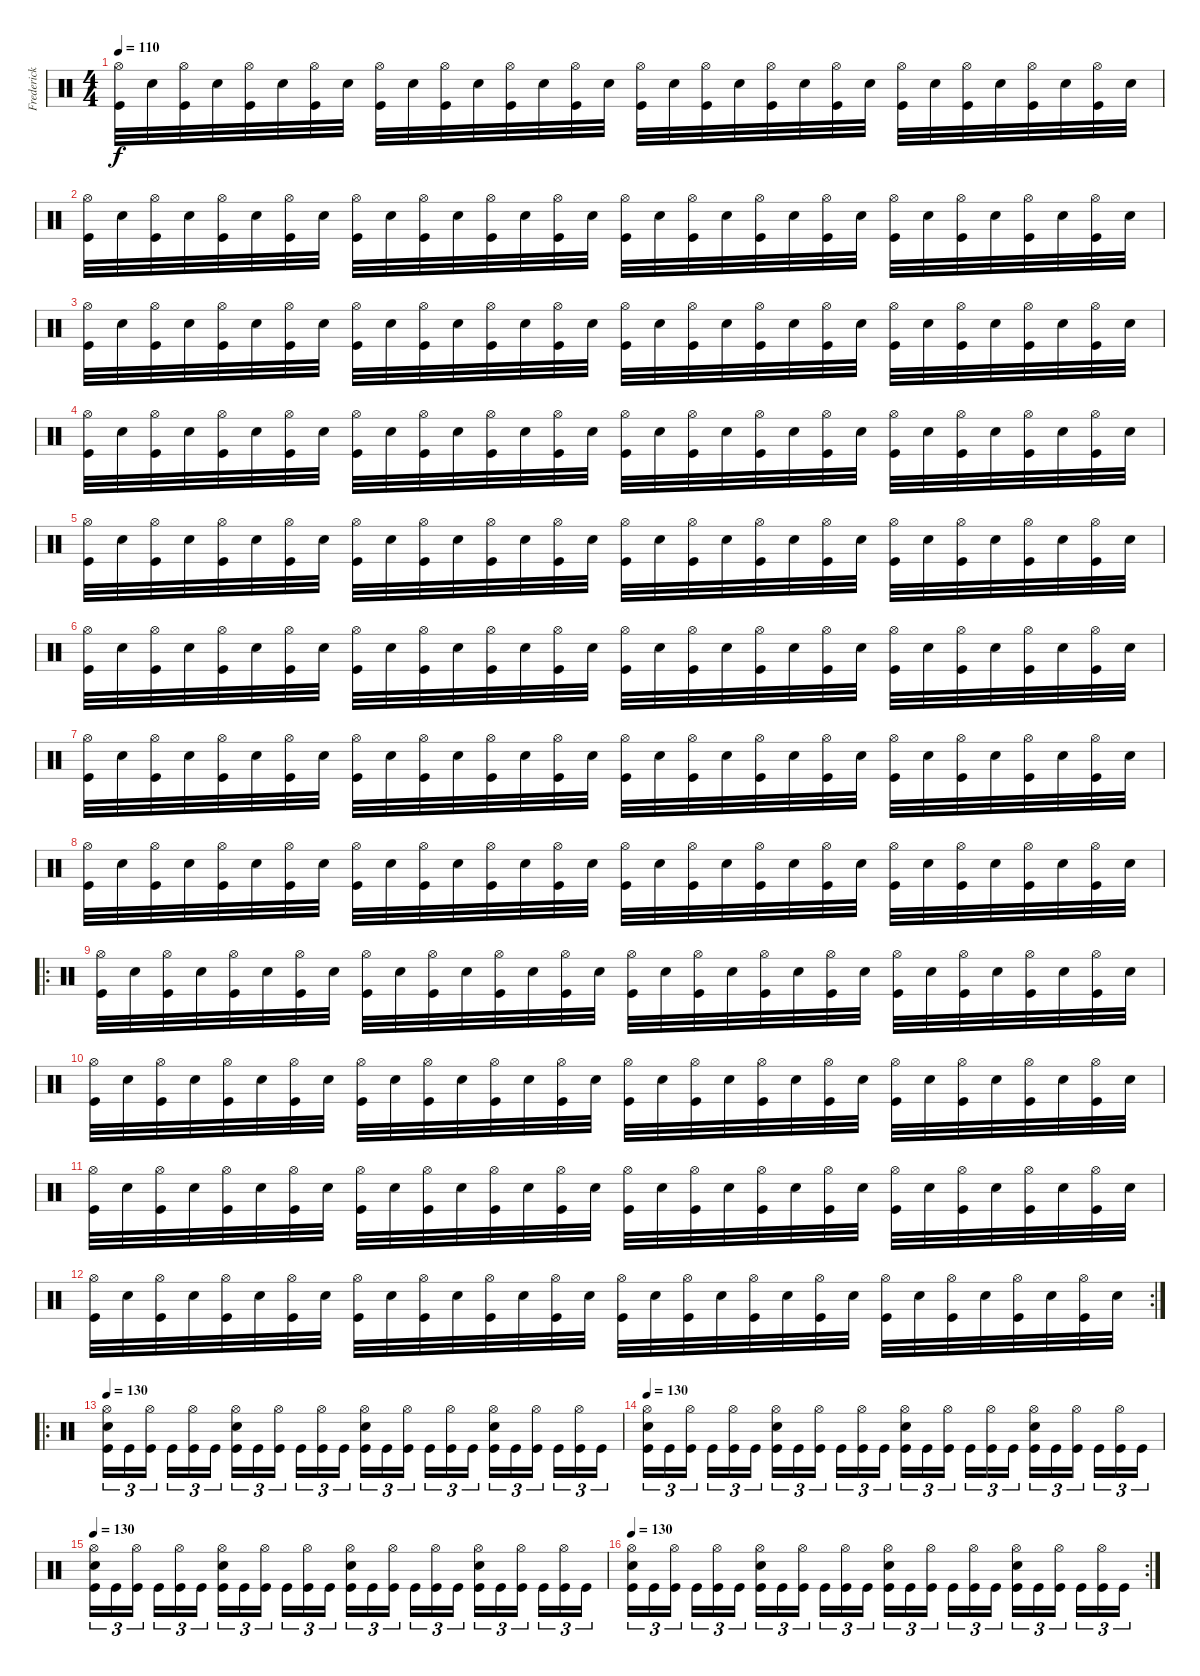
\track ("Frederick" "Frederick") {instrument percussion}
\staff {score}
\articulation defaults
\ts (4 4)
\tempo 110
\clef neutral
\ks c
("Hi-Hat (open)" "Kick (hit)").32{dy f} "Electric Snare (hit)".32 ("Hi-Hat (open)" "Kick (hit)").32 "Electric Snare (hit)".32 ("Hi-Hat (open)" "Kick (hit)").32 "Electric Snare (hit)".32 ("Hi-Hat (open)" "Kick (hit)").32 "Electric Snare (hit)".32 ("Hi-Hat (open)" "Kick (hit)").32 "Electric Snare (hit)".32 ("Hi-Hat (open)" "Kick (hit)").32 "Electric Snare (hit)".32 ("Hi-Hat (open)" "Kick (hit)").32 "Electric Snare (hit)".32 ("Hi-Hat (open)" "Kick (hit)").32 "Electric Snare (hit)".32 ("Hi-Hat (open)" "Kick (hit)").32 "Electric Snare (hit)".32 ("Hi-Hat (open)" "Kick (hit)").32 "Electric Snare (hit)".32 ("Hi-Hat (open)" "Kick (hit)").32 "Electric Snare (hit)".32 ("Hi-Hat (open)" "Kick (hit)").32 "Electric Snare (hit)".32 ("Hi-Hat (open)" "Kick (hit)").32 "Electric Snare (hit)".32 ("Hi-Hat (open)" "Kick (hit)").32 "Electric Snare (hit)".32 ("Hi-Hat (open)" "Kick (hit)").32 "Electric Snare (hit)".32 ("Hi-Hat (open)" "Kick (hit)").32 "Electric Snare (hit)".32 |
("Hi-Hat (open)" "Kick (hit)").32 "Electric Snare (hit)".32 ("Hi-Hat (open)" "Kick (hit)").32 "Electric Snare (hit)".32 ("Hi-Hat (open)" "Kick (hit)").32 "Electric Snare (hit)".32 ("Hi-Hat (open)" "Kick (hit)").32 "Electric Snare (hit)".32 ("Hi-Hat (open)" "Kick (hit)").32 "Electric Snare (hit)".32 ("Hi-Hat (open)" "Kick (hit)").32 "Electric Snare (hit)".32 ("Hi-Hat (open)" "Kick (hit)").32 "Electric Snare (hit)".32 ("Hi-Hat (open)" "Kick (hit)").32 "Electric Snare (hit)".32 ("Hi-Hat (open)" "Kick (hit)").32 "Electric Snare (hit)".32 ("Hi-Hat (open)" "Kick (hit)").32 "Electric Snare (hit)".32 ("Hi-Hat (open)" "Kick (hit)").32 "Electric Snare (hit)".32 ("Hi-Hat (open)" "Kick (hit)").32 "Electric Snare (hit)".32 ("Hi-Hat (open)" "Kick (hit)").32 "Electric Snare (hit)".32 ("Hi-Hat (open)" "Kick (hit)").32 "Electric Snare (hit)".32 ("Hi-Hat (open)" "Kick (hit)").32 "Electric Snare (hit)".32 ("Hi-Hat (open)" "Kick (hit)").32 "Electric Snare (hit)".32 |
("Hi-Hat (open)" "Kick (hit)").32 "Electric Snare (hit)".32 ("Hi-Hat (open)" "Kick (hit)").32 "Electric Snare (hit)".32 ("Hi-Hat (open)" "Kick (hit)").32 "Electric Snare (hit)".32 ("Hi-Hat (open)" "Kick (hit)").32 "Electric Snare (hit)".32 ("Hi-Hat (open)" "Kick (hit)").32 "Electric Snare (hit)".32 ("Hi-Hat (open)" "Kick (hit)").32 "Electric Snare (hit)".32 ("Hi-Hat (open)" "Kick (hit)").32 "Electric Snare (hit)".32 ("Hi-Hat (open)" "Kick (hit)").32 "Electric Snare (hit)".32 ("Hi-Hat (open)" "Kick (hit)").32 "Electric Snare (hit)".32 ("Hi-Hat (open)" "Kick (hit)").32 "Electric Snare (hit)".32 ("Hi-Hat (open)" "Kick (hit)").32 "Electric Snare (hit)".32 ("Hi-Hat (open)" "Kick (hit)").32 "Electric Snare (hit)".32 ("Hi-Hat (open)" "Kick (hit)").32 "Electric Snare (hit)".32 ("Hi-Hat (open)" "Kick (hit)").32 "Electric Snare (hit)".32 ("Hi-Hat (open)" "Kick (hit)").32 "Electric Snare (hit)".32 ("Hi-Hat (open)" "Kick (hit)").32 "Electric Snare (hit)".32 |
("Hi-Hat (open)" "Kick (hit)").32 "Electric Snare (hit)".32 ("Hi-Hat (open)" "Kick (hit)").32 "Electric Snare (hit)".32 ("Hi-Hat (open)" "Kick (hit)").32 "Electric Snare (hit)".32 ("Hi-Hat (open)" "Kick (hit)").32 "Electric Snare (hit)".32 ("Hi-Hat (open)" "Kick (hit)").32 "Electric Snare (hit)".32 ("Hi-Hat (open)" "Kick (hit)").32 "Electric Snare (hit)".32 ("Hi-Hat (open)" "Kick (hit)").32 "Electric Snare (hit)".32 ("Hi-Hat (open)" "Kick (hit)").32 "Electric Snare (hit)".32 ("Hi-Hat (open)" "Kick (hit)").32 "Electric Snare (hit)".32 ("Hi-Hat (open)" "Kick (hit)").32 "Electric Snare (hit)".32 ("Hi-Hat (open)" "Kick (hit)").32 "Electric Snare (hit)".32 ("Hi-Hat (open)" "Kick (hit)").32 "Electric Snare (hit)".32 ("Hi-Hat (open)" "Kick (hit)").32 "Electric Snare (hit)".32 ("Hi-Hat (open)" "Kick (hit)").32 "Electric Snare (hit)".32 ("Hi-Hat (open)" "Kick (hit)").32 "Electric Snare (hit)".32 ("Hi-Hat (open)" "Kick (hit)").32 "Electric Snare (hit)".32 |
("Hi-Hat (open)" "Kick (hit)").32 "Electric Snare (hit)".32 ("Hi-Hat (open)" "Kick (hit)").32 "Electric Snare (hit)".32 ("Hi-Hat (open)" "Kick (hit)").32 "Electric Snare (hit)".32 ("Hi-Hat (open)" "Kick (hit)").32 "Electric Snare (hit)".32 ("Hi-Hat (open)" "Kick (hit)").32 "Electric Snare (hit)".32 ("Hi-Hat (open)" "Kick (hit)").32 "Electric Snare (hit)".32 ("Hi-Hat (open)" "Kick (hit)").32 "Electric Snare (hit)".32 ("Hi-Hat (open)" "Kick (hit)").32 "Electric Snare (hit)".32 ("Hi-Hat (open)" "Kick (hit)").32 "Electric Snare (hit)".32 ("Hi-Hat (open)" "Kick (hit)").32 "Electric Snare (hit)".32 ("Hi-Hat (open)" "Kick (hit)").32 "Electric Snare (hit)".32 ("Hi-Hat (open)" "Kick (hit)").32 "Electric Snare (hit)".32 ("Hi-Hat (open)" "Kick (hit)").32 "Electric Snare (hit)".32 ("Hi-Hat (open)" "Kick (hit)").32 "Electric Snare (hit)".32 ("Hi-Hat (open)" "Kick (hit)").32 "Electric Snare (hit)".32 ("Hi-Hat (open)" "Kick (hit)").32 "Electric Snare (hit)".32 |
("Hi-Hat (open)" "Kick (hit)").32 "Electric Snare (hit)".32 ("Hi-Hat (open)" "Kick (hit)").32 "Electric Snare (hit)".32 ("Hi-Hat (open)" "Kick (hit)").32 "Electric Snare (hit)".32 ("Hi-Hat (open)" "Kick (hit)").32 "Electric Snare (hit)".32 ("Hi-Hat (open)" "Kick (hit)").32 "Electric Snare (hit)".32 ("Hi-Hat (open)" "Kick (hit)").32 "Electric Snare (hit)".32 ("Hi-Hat (open)" "Kick (hit)").32 "Electric Snare (hit)".32 ("Hi-Hat (open)" "Kick (hit)").32 "Electric Snare (hit)".32 ("Hi-Hat (open)" "Kick (hit)").32 "Electric Snare (hit)".32 ("Hi-Hat (open)" "Kick (hit)").32 "Electric Snare (hit)".32 ("Hi-Hat (open)" "Kick (hit)").32 "Electric Snare (hit)".32 ("Hi-Hat (open)" "Kick (hit)").32 "Electric Snare (hit)".32 ("Hi-Hat (open)" "Kick (hit)").32 "Electric Snare (hit)".32 ("Hi-Hat (open)" "Kick (hit)").32 "Electric Snare (hit)".32 ("Hi-Hat (open)" "Kick (hit)").32 "Electric Snare (hit)".32 ("Hi-Hat (open)" "Kick (hit)").32 "Electric Snare (hit)".32 |
("Hi-Hat (open)" "Kick (hit)").32 "Electric Snare (hit)".32 ("Hi-Hat (open)" "Kick (hit)").32 "Electric Snare (hit)".32 ("Hi-Hat (open)" "Kick (hit)").32 "Electric Snare (hit)".32 ("Hi-Hat (open)" "Kick (hit)").32 "Electric Snare (hit)".32 ("Hi-Hat (open)" "Kick (hit)").32 "Electric Snare (hit)".32 ("Hi-Hat (open)" "Kick (hit)").32 "Electric Snare (hit)".32 ("Hi-Hat (open)" "Kick (hit)").32 "Electric Snare (hit)".32 ("Hi-Hat (open)" "Kick (hit)").32 "Electric Snare (hit)".32 ("Hi-Hat (open)" "Kick (hit)").32 "Electric Snare (hit)".32 ("Hi-Hat (open)" "Kick (hit)").32 "Electric Snare (hit)".32 ("Hi-Hat (open)" "Kick (hit)").32 "Electric Snare (hit)".32 ("Hi-Hat (open)" "Kick (hit)").32 "Electric Snare (hit)".32 ("Hi-Hat (open)" "Kick (hit)").32 "Electric Snare (hit)".32 ("Hi-Hat (open)" "Kick (hit)").32 "Electric Snare (hit)".32 ("Hi-Hat (open)" "Kick (hit)").32 "Electric Snare (hit)".32 ("Hi-Hat (open)" "Kick (hit)").32 "Electric Snare (hit)".32 |
("Hi-Hat (open)" "Kick (hit)").32 "Electric Snare (hit)".32 ("Hi-Hat (open)" "Kick (hit)").32 "Electric Snare (hit)".32 ("Hi-Hat (open)" "Kick (hit)").32 "Electric Snare (hit)".32 ("Hi-Hat (open)" "Kick (hit)").32 "Electric Snare (hit)".32 ("Hi-Hat (open)" "Kick (hit)").32 "Electric Snare (hit)".32 ("Hi-Hat (open)" "Kick (hit)").32 "Electric Snare (hit)".32 ("Hi-Hat (open)" "Kick (hit)").32 "Electric Snare (hit)".32 ("Hi-Hat (open)" "Kick (hit)").32 "Electric Snare (hit)".32 ("Hi-Hat (open)" "Kick (hit)").32 "Electric Snare (hit)".32 ("Hi-Hat (open)" "Kick (hit)").32 "Electric Snare (hit)".32 ("Hi-Hat (open)" "Kick (hit)").32 "Electric Snare (hit)".32 ("Hi-Hat (open)" "Kick (hit)").32 "Electric Snare (hit)".32 ("Hi-Hat (open)" "Kick (hit)").32 "Electric Snare (hit)".32 ("Hi-Hat (open)" "Kick (hit)").32 "Electric Snare (hit)".32 ("Hi-Hat (open)" "Kick (hit)").32 "Electric Snare (hit)".32 ("Hi-Hat (open)" "Kick (hit)").32 "Electric Snare (hit)".32 |
\ro
("Hi-Hat (open)" "Kick (hit)").32 "Electric Snare (hit)".32 ("Hi-Hat (open)" "Kick (hit)").32 "Electric Snare (hit)".32 ("Hi-Hat (open)" "Kick (hit)").32 "Electric Snare (hit)".32 ("Hi-Hat (open)" "Kick (hit)").32 "Electric Snare (hit)".32 ("Hi-Hat (open)" "Kick (hit)").32 "Electric Snare (hit)".32 ("Hi-Hat (open)" "Kick (hit)").32 "Electric Snare (hit)".32 ("Hi-Hat (open)" "Kick (hit)").32 "Electric Snare (hit)".32 ("Hi-Hat (open)" "Kick (hit)").32 "Electric Snare (hit)".32 ("Hi-Hat (open)" "Kick (hit)").32 "Electric Snare (hit)".32 ("Hi-Hat (open)" "Kick (hit)").32 "Electric Snare (hit)".32 ("Hi-Hat (open)" "Kick (hit)").32 "Electric Snare (hit)".32 ("Hi-Hat (open)" "Kick (hit)").32 "Electric Snare (hit)".32 ("Hi-Hat (open)" "Kick (hit)").32 "Electric Snare (hit)".32 ("Hi-Hat (open)" "Kick (hit)").32 "Electric Snare (hit)".32 ("Hi-Hat (open)" "Kick (hit)").32 "Electric Snare (hit)".32 ("Hi-Hat (open)" "Kick (hit)").32 "Electric Snare (hit)".32 |
("Hi-Hat (open)" "Kick (hit)").32 "Electric Snare (hit)".32 ("Hi-Hat (open)" "Kick (hit)").32 "Electric Snare (hit)".32 ("Hi-Hat (open)" "Kick (hit)").32 "Electric Snare (hit)".32 ("Hi-Hat (open)" "Kick (hit)").32 "Electric Snare (hit)".32 ("Hi-Hat (open)" "Kick (hit)").32 "Electric Snare (hit)".32 ("Hi-Hat (open)" "Kick (hit)").32 "Electric Snare (hit)".32 ("Hi-Hat (open)" "Kick (hit)").32 "Electric Snare (hit)".32 ("Hi-Hat (open)" "Kick (hit)").32 "Electric Snare (hit)".32 ("Hi-Hat (open)" "Kick (hit)").32 "Electric Snare (hit)".32 ("Hi-Hat (open)" "Kick (hit)").32 "Electric Snare (hit)".32 ("Hi-Hat (open)" "Kick (hit)").32 "Electric Snare (hit)".32 ("Hi-Hat (open)" "Kick (hit)").32 "Electric Snare (hit)".32 ("Hi-Hat (open)" "Kick (hit)").32 "Electric Snare (hit)".32 ("Hi-Hat (open)" "Kick (hit)").32 "Electric Snare (hit)".32 ("Hi-Hat (open)" "Kick (hit)").32 "Electric Snare (hit)".32 ("Hi-Hat (open)" "Kick (hit)").32 "Electric Snare (hit)".32 |
("Hi-Hat (open)" "Kick (hit)").32 "Electric Snare (hit)".32 ("Hi-Hat (open)" "Kick (hit)").32 "Electric Snare (hit)".32 ("Hi-Hat (open)" "Kick (hit)").32 "Electric Snare (hit)".32 ("Hi-Hat (open)" "Kick (hit)").32 "Electric Snare (hit)".32 ("Hi-Hat (open)" "Kick (hit)").32 "Electric Snare (hit)".32 ("Hi-Hat (open)" "Kick (hit)").32 "Electric Snare (hit)".32 ("Hi-Hat (open)" "Kick (hit)").32 "Electric Snare (hit)".32 ("Hi-Hat (open)" "Kick (hit)").32 "Electric Snare (hit)".32 ("Hi-Hat (open)" "Kick (hit)").32 "Electric Snare (hit)".32 ("Hi-Hat (open)" "Kick (hit)").32 "Electric Snare (hit)".32 ("Hi-Hat (open)" "Kick (hit)").32 "Electric Snare (hit)".32 ("Hi-Hat (open)" "Kick (hit)").32 "Electric Snare (hit)".32 ("Hi-Hat (open)" "Kick (hit)").32 "Electric Snare (hit)".32 ("Hi-Hat (open)" "Kick (hit)").32 "Electric Snare (hit)".32 ("Hi-Hat (open)" "Kick (hit)").32 "Electric Snare (hit)".32 ("Hi-Hat (open)" "Kick (hit)").32 "Electric Snare (hit)".32 |
\rc 2
("Hi-Hat (open)" "Kick (hit)").32 "Electric Snare (hit)".32 ("Hi-Hat (open)" "Kick (hit)").32 "Electric Snare (hit)".32 ("Hi-Hat (open)" "Kick (hit)").32 "Electric Snare (hit)".32 ("Hi-Hat (open)" "Kick (hit)").32 "Electric Snare (hit)".32 ("Hi-Hat (open)" "Kick (hit)").32 "Electric Snare (hit)".32 ("Hi-Hat (open)" "Kick (hit)").32 "Electric Snare (hit)".32 ("Hi-Hat (open)" "Kick (hit)").32 "Electric Snare (hit)".32 ("Hi-Hat (open)" "Kick (hit)").32 "Electric Snare (hit)".32 ("Hi-Hat (open)" "Kick (hit)").32 "Electric Snare (hit)".32 ("Hi-Hat (open)" "Kick (hit)").32 "Electric Snare (hit)".32 ("Hi-Hat (open)" "Kick (hit)").32 "Electric Snare (hit)".32 ("Hi-Hat (open)" "Kick (hit)").32 "Electric Snare (hit)".32 ("Hi-Hat (open)" "Kick (hit)").32 "Electric Snare (hit)".32 ("Hi-Hat (open)" "Kick (hit)").32 "Electric Snare (hit)".32 ("Hi-Hat (open)" "Kick (hit)").32 "Electric Snare (hit)".32 ("Hi-Hat (open)" "Kick (hit)").32 "Electric Snare (hit)".32 |
\ro
\tempo 130
("Hi-Hat (open)" "Electric Snare (hit)" "Kick (hit)").16{tu (3 2)} "Kick (hit)".16{tu (3 2)} ("Hi-Hat (open)" "Kick (hit)").16{tu (3 2)} "Kick (hit)".16{tu (3 2)} ("Hi-Hat (open)" "Kick (hit)").16{tu (3 2)} "Kick (hit)".16{tu (3 2)} ("Hi-Hat (open)" "Electric Snare (hit)" "Kick (hit)").16{tu (3 2)} "Kick (hit)".16{tu (3 2)} ("Hi-Hat (open)" "Kick (hit)").16{tu (3 2)} "Kick (hit)".16{tu (3 2)} ("Hi-Hat (open)" "Kick (hit)").16{tu (3 2)} "Kick (hit)".16{tu (3 2)} ("Hi-Hat (open)" "Electric Snare (hit)" "Kick (hit)").16{tu (3 2)} "Kick (hit)".16{tu (3 2)} ("Hi-Hat (open)" "Kick (hit)").16{tu (3 2)} "Kick (hit)".16{tu (3 2)} ("Hi-Hat (open)" "Kick (hit)").16{tu (3 2)} "Kick (hit)".16{tu (3 2)} ("Hi-Hat (open)" "Electric Snare (hit)" "Kick (hit)").16{tu (3 2)} "Kick (hit)".16{tu (3 2)} ("Hi-Hat (open)" "Kick (hit)").16{tu (3 2)} "Kick (hit)".16{tu (3 2)} ("Hi-Hat (open)" "Kick (hit)").16{tu (3 2)} "Kick (hit)".16{tu (3 2)} |
\tempo 130
("Hi-Hat (open)" "Electric Snare (hit)" "Kick (hit)").16{tu (3 2)} "Kick (hit)".16{tu (3 2)} ("Hi-Hat (open)" "Kick (hit)").16{tu (3 2)} "Kick (hit)".16{tu (3 2)} ("Hi-Hat (open)" "Kick (hit)").16{tu (3 2)} "Kick (hit)".16{tu (3 2)} ("Hi-Hat (open)" "Electric Snare (hit)" "Kick (hit)").16{tu (3 2)} "Kick (hit)".16{tu (3 2)} ("Hi-Hat (open)" "Kick (hit)").16{tu (3 2)} "Kick (hit)".16{tu (3 2)} ("Hi-Hat (open)" "Kick (hit)").16{tu (3 2)} "Kick (hit)".16{tu (3 2)} ("Hi-Hat (open)" "Electric Snare (hit)" "Kick (hit)").16{tu (3 2)} "Kick (hit)".16{tu (3 2)} ("Hi-Hat (open)" "Kick (hit)").16{tu (3 2)} "Kick (hit)".16{tu (3 2)} ("Hi-Hat (open)" "Kick (hit)").16{tu (3 2)} "Kick (hit)".16{tu (3 2)} ("Hi-Hat (open)" "Electric Snare (hit)" "Kick (hit)").16{tu (3 2)} "Kick (hit)".16{tu (3 2)} ("Hi-Hat (open)" "Kick (hit)").16{tu (3 2)} "Kick (hit)".16{tu (3 2)} ("Hi-Hat (open)" "Kick (hit)").16{tu (3 2)} "Kick (hit)".16{tu (3 2)} |
\tempo 130
("Hi-Hat (open)" "Electric Snare (hit)" "Kick (hit)").16{tu (3 2)} "Kick (hit)".16{tu (3 2)} ("Hi-Hat (open)" "Kick (hit)").16{tu (3 2)} "Kick (hit)".16{tu (3 2)} ("Hi-Hat (open)" "Kick (hit)").16{tu (3 2)} "Kick (hit)".16{tu (3 2)} ("Hi-Hat (open)" "Electric Snare (hit)" "Kick (hit)").16{tu (3 2)} "Kick (hit)".16{tu (3 2)} ("Hi-Hat (open)" "Kick (hit)").16{tu (3 2)} "Kick (hit)".16{tu (3 2)} ("Hi-Hat (open)" "Kick (hit)").16{tu (3 2)} "Kick (hit)".16{tu (3 2)} ("Hi-Hat (open)" "Electric Snare (hit)" "Kick (hit)").16{tu (3 2)} "Kick (hit)".16{tu (3 2)} ("Hi-Hat (open)" "Kick (hit)").16{tu (3 2)} "Kick (hit)".16{tu (3 2)} ("Hi-Hat (open)" "Kick (hit)").16{tu (3 2)} "Kick (hit)".16{tu (3 2)} ("Hi-Hat (open)" "Electric Snare (hit)" "Kick (hit)").16{tu (3 2)} "Kick (hit)".16{tu (3 2)} ("Hi-Hat (open)" "Kick (hit)").16{tu (3 2)} "Kick (hit)".16{tu (3 2)} ("Hi-Hat (open)" "Kick (hit)").16{tu (3 2)} "Kick (hit)".16{tu (3 2)} |
\rc 2
\tempo 130
("Hi-Hat (open)" "Electric Snare (hit)" "Kick (hit)").16{tu (3 2)} "Kick (hit)".16{tu (3 2)} ("Hi-Hat (open)" "Kick (hit)").16{tu (3 2)} "Kick (hit)".16{tu (3 2)} ("Hi-Hat (open)" "Kick (hit)").16{tu (3 2)} "Kick (hit)".16{tu (3 2)} ("Hi-Hat (open)" "Electric Snare (hit)" "Kick (hit)").16{tu (3 2)} "Kick (hit)".16{tu (3 2)} ("Hi-Hat (open)" "Kick (hit)").16{tu (3 2)} "Kick (hit)".16{tu (3 2)} ("Hi-Hat (open)" "Kick (hit)").16{tu (3 2)} "Kick (hit)".16{tu (3 2)} ("Hi-Hat (open)" "Electric Snare (hit)" "Kick (hit)").16{tu (3 2)} "Kick (hit)".16{tu (3 2)} ("Hi-Hat (open)" "Kick (hit)").16{tu (3 2)} "Kick (hit)".16{tu (3 2)} ("Hi-Hat (open)" "Kick (hit)").16{tu (3 2)} "Kick (hit)".16{tu (3 2)} ("Hi-Hat (open)" "Electric Snare (hit)" "Kick (hit)").16{tu (3 2)} "Kick (hit)".16{tu (3 2)} ("Hi-Hat (open)" "Kick (hit)").16{tu (3 2)} "Kick (hit)".16{tu (3 2)} ("Hi-Hat (open)" "Kick (hit)").16{tu (3 2)} "Kick (hit)".16{tu (3 2)}
